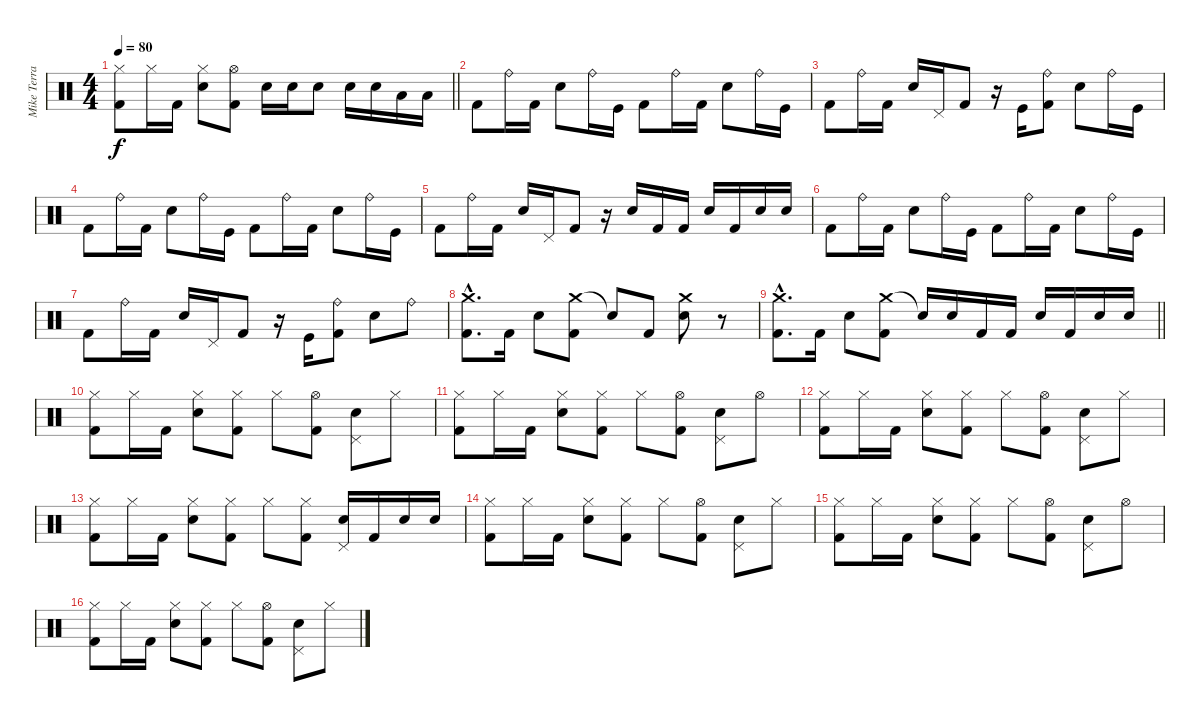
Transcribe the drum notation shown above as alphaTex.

\track ("Mike Terrana" "Mike Terra") {instrument percussion}
\staff {score}
\articulation defaults
\ts (4 4)
\tempo 80
\clef neutral
\barLineRight lightlight
\ks c
("Hi-Hat (closed)" "Kick (hit) 2").8{dy f} "Hi-Hat (closed)".16 "Kick (hit) 2".16 ("Hi-Hat (closed)" "Electric Snare (hit)").8 ("Hi-Hat (open)" "Kick (hit) 2").8 "Electric Snare (hit)".16 "Electric Snare (hit)".16 "Electric Snare (hit)".8 "Electric Snare (hit)".16 "Electric Snare (hit)".16 "Low Tom (hit)".16 "Low Floor Tom (hit)".16 |
"Kick (hit) 2".8 "Ride (bell)".16 "Kick (hit) 2".16 "Electric Snare (hit)".8 "Ride (bell)".16 "Kick (hit)".16 "Kick (hit) 2".8 "Ride (bell)".16 "Kick (hit) 2".16 "Electric Snare (hit)".8 "Ride (bell)".16 "Kick (hit)".16 |
"Kick (hit) 2".8 "Ride (bell)".16 "Kick (hit) 2".16 "Electric Snare (hit)".16 "Pedal Hi-Hat (hit)".16 "Kick (hit) 2".8 r.16 "Kick (hit)".16 ("Ride (bell)" "Kick (hit) 2").8 "Electric Snare (hit)".8 "Ride (bell)".16 "Kick (hit)".16 |
"Kick (hit) 2".8 "Ride (bell)".16 "Kick (hit) 2".16 "Electric Snare (hit)".8 "Ride (bell)".16 "Kick (hit)".16 "Kick (hit) 2".8 "Ride (bell)".16 "Kick (hit) 2".16 "Electric Snare (hit)".8 "Ride (bell)".16 "Kick (hit)".16 |
"Kick (hit) 2".8 "Ride (bell)".16 "Kick (hit) 2".16 "Electric Snare (hit)".16 "Pedal Hi-Hat (hit)".16 "Kick (hit) 2".8 r.16 "Electric Snare (hit)".16 "Kick (hit) 2".16 "Kick (hit) 2".16 "Electric Snare (hit)".16 "Kick (hit) 2".16 "Electric Snare (hit)".16 "Electric Snare (hit)".16 |
"Kick (hit) 2".8 "Ride (bell)".16 "Kick (hit) 2".16 "Electric Snare (hit)".8 "Ride (bell)".16 "Kick (hit)".16 "Kick (hit) 2".8 "Ride (bell)".16 "Kick (hit) 2".16 "Electric Snare (hit)".8 "Ride (bell)".16 "Kick (hit)".16 |
"Kick (hit) 2".8 "Ride (bell)".16 "Kick (hit) 2".16 "Electric Snare (hit)".16 "Pedal Hi-Hat (hit)".16 "Kick (hit) 2".8 r.16 "Kick (hit)".16 ("Ride (bell)" "Kick (hit) 2").8 "Electric Snare (hit)".8 "Ride (bell)".8 |
("Crash medium (hit)"{hac} "Kick (hit) 2"{hac}).8{d} "Kick (hit) 2".16 "Electric Snare (hit)".8 ("Crash medium (hit)" "Kick (hit) 2").8 "Snare (hit)"{t}.8 "Kick (hit) 2".8 ("Crash medium (hit)" "Electric Snare (hit)").8 r.8 |
\barLineRight lightlight
("Crash medium (hit)"{hac} "Kick (hit) 2"{hac}).8{d} "Kick (hit) 2".16 "Electric Snare (hit)".8 ("Crash medium (hit)" "Kick (hit) 2").8 "Snare (hit)"{t}.16 "Electric Snare (hit)".16 "Kick (hit) 2".16 "Kick (hit) 2".16 "Electric Snare (hit)".16 "Kick (hit) 2".16 "Electric Snare (hit)".16 "Electric Snare (hit)".16 |
("Hi-Hat (closed)" "Kick (hit) 2").8 "Hi-Hat (closed)".16 "Kick (hit) 2".16 ("Hi-Hat (closed)" "Electric Snare (hit)").8 ("Hi-Hat (closed)" "Kick (hit) 2").8 "Hi-Hat (closed)".8 ("Hi-Hat (open)" "Kick (hit) 2").8 ("Pedal Hi-Hat (hit)" "Electric Snare (hit)").8 "Hi-Hat (closed)".8 |
("Hi-Hat (closed)" "Kick (hit) 2").8 "Hi-Hat (closed)".16 "Kick (hit) 2".16 ("Hi-Hat (closed)" "Electric Snare (hit)").8 ("Hi-Hat (closed)" "Kick (hit) 2").8 "Hi-Hat (closed)".8 ("Hi-Hat (open)" "Kick (hit) 2").8 ("Pedal Hi-Hat (hit)" "Electric Snare (hit)").8 "Hi-Hat (open)".8 |
("Hi-Hat (closed)" "Kick (hit) 2").8 "Hi-Hat (closed)".16 "Kick (hit) 2".16 ("Hi-Hat (closed)" "Electric Snare (hit)").8 ("Hi-Hat (closed)" "Kick (hit) 2").8 "Hi-Hat (closed)".8 ("Hi-Hat (open)" "Kick (hit) 2").8 ("Pedal Hi-Hat (hit)" "Electric Snare (hit)").8 "Hi-Hat (closed)".8 |
("Hi-Hat (closed)" "Kick (hit) 2").8 "Hi-Hat (closed)".16 "Kick (hit) 2".16 ("Hi-Hat (closed)" "Electric Snare (hit)").8 ("Hi-Hat (closed)" "Kick (hit) 2").8 "Hi-Hat (closed)".8 ("Hi-Hat (closed)" "Kick (hit) 2").8 ("Pedal Hi-Hat (hit)" "Electric Snare (hit)").16 "Kick (hit) 2".16 "Electric Snare (hit)".16 "Electric Snare (hit)".16 |
("Hi-Hat (closed)" "Kick (hit) 2").8 "Hi-Hat (closed)".16 "Kick (hit) 2".16 ("Hi-Hat (closed)" "Electric Snare (hit)").8 ("Hi-Hat (closed)" "Kick (hit) 2").8 "Hi-Hat (closed)".8 ("Hi-Hat (open)" "Kick (hit) 2").8 ("Pedal Hi-Hat (hit)" "Electric Snare (hit)").8 "Hi-Hat (closed)".8 |
("Hi-Hat (closed)" "Kick (hit) 2").8 "Hi-Hat (closed)".16 "Kick (hit) 2".16 ("Hi-Hat (closed)" "Electric Snare (hit)").8 ("Hi-Hat (closed)" "Kick (hit) 2").8 "Hi-Hat (closed)".8 ("Hi-Hat (open)" "Kick (hit) 2").8 ("Pedal Hi-Hat (hit)" "Electric Snare (hit)").8 "Hi-Hat (open)".8 |
("Hi-Hat (closed)" "Kick (hit) 2").8 "Hi-Hat (closed)".16 "Kick (hit) 2".16 ("Hi-Hat (closed)" "Electric Snare (hit)").8 ("Hi-Hat (closed)" "Kick (hit) 2").8 "Hi-Hat (closed)".8 ("Hi-Hat (open)" "Kick (hit) 2").8 ("Pedal Hi-Hat (hit)" "Electric Snare (hit)").8 "Hi-Hat (closed)".8
